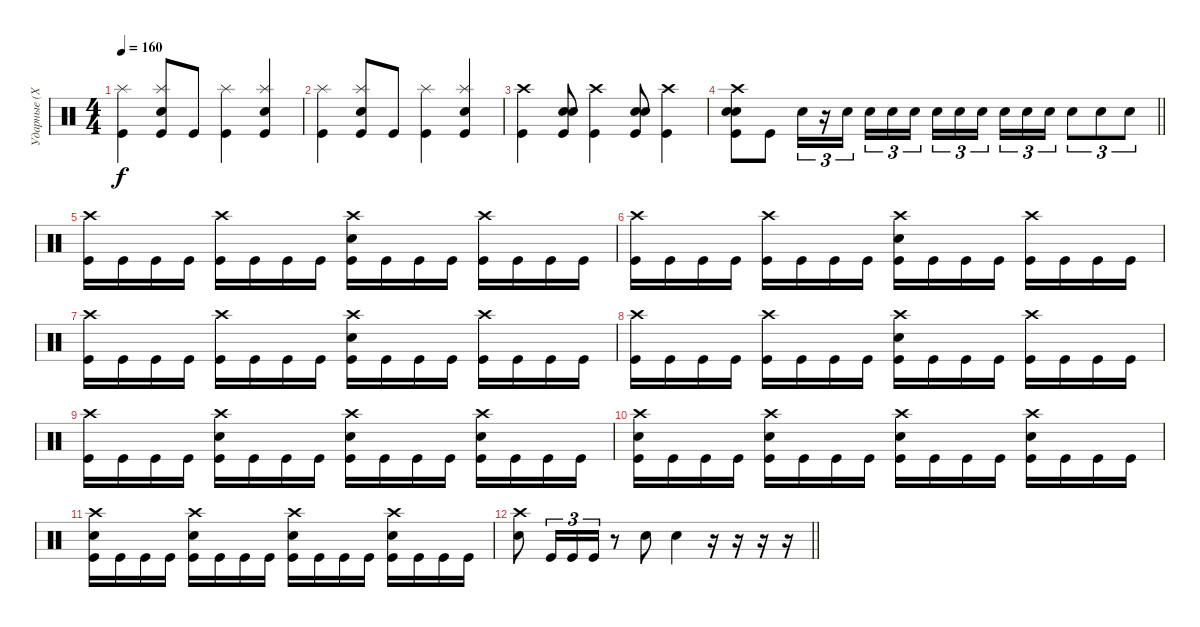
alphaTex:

\track ("Ударные (Хеллхаммер)" "Ударные (Х") {instrument percussion}
\staff {score}
\articulation defaults
\ts (4 4)
\tempo 160
\clef neutral
\ks c
("Kick (hit)" "Splash (hit)").4{dy f} ("Kick (hit)" "Splash (hit)" "Electric Snare (hit)").8 "Kick (hit)".8 ("Kick (hit)" "Splash (hit)").4 ("Kick (hit)" "Splash (hit)" "Electric Snare (hit)").4 |
("Kick (hit)" "Splash (hit)").4 ("Kick (hit)" "Splash (hit)" "Electric Snare (hit)").8 "Kick (hit)".8 ("Kick (hit)" "Splash (hit)").4 ("Kick (hit)" "Splash (hit)" "Electric Snare (hit)").4 |
("Kick (hit)" "Crash high (hit)").4 ("Kick (hit)" "Electric Snare (hit)" "Electric Snare (hit)").8 ("Kick (hit)" "Crash high (hit)").4 ("Kick (hit)" "Electric Snare (hit)" "Electric Snare (hit)").8 ("Kick (hit)" "Crash high (hit)").4 |
\barLineRight lightlight
("Kick (hit)" "Crash high (hit)" "Electric Snare (hit)" "Electric Snare (hit)").8 "Kick (hit)".8 "Electric Snare (hit)".16{tu (3 2)} r.16{tu (3 2)} "Electric Snare (hit)".16{tu (3 2) beam splitsecondary} "Electric Snare (hit)".16{tu (3 2)} "Electric Snare (hit)".16{tu (3 2)} "Electric Snare (hit)".16{tu (3 2)} "Electric Snare (hit)".16{tu (3 2)} "Electric Snare (hit)".16{tu (3 2)} "Electric Snare (hit)".16{tu (3 2) beam splitsecondary} "Electric Snare (hit)".16{tu (3 2)} "Electric Snare (hit)".16{tu (3 2)} "Electric Snare (hit)".16{tu (3 2)} "Electric Snare (hit)".8{tu (3 2)} "Electric Snare (hit)".8{tu (3 2)} "Electric Snare (hit)".8{tu (3 2)} |
("Kick (hit)" "Crash high (hit)").16 "Kick (hit)".16 "Kick (hit)".16 "Kick (hit)".16 ("Kick (hit)" "Crash high (hit)").16 "Kick (hit)".16 "Kick (hit)".16 "Kick (hit)".16 ("Kick (hit)" "Crash high (hit)" "Electric Snare (hit)").16 "Kick (hit)".16 "Kick (hit)".16 "Kick (hit)".16 ("Kick (hit)" "Crash high (hit)").16 "Kick (hit)".16 "Kick (hit)".16 "Kick (hit)".16 |
("Kick (hit)" "Crash high (hit)").16 "Kick (hit)".16 "Kick (hit)".16 "Kick (hit)".16 ("Kick (hit)" "Crash high (hit)").16 "Kick (hit)".16 "Kick (hit)".16 "Kick (hit)".16 ("Kick (hit)" "Crash high (hit)" "Electric Snare (hit)").16 "Kick (hit)".16 "Kick (hit)".16 "Kick (hit)".16 ("Kick (hit)" "Crash high (hit)").16 "Kick (hit)".16 "Kick (hit)".16 "Kick (hit)".16 |
("Kick (hit)" "Crash high (hit)").16 "Kick (hit)".16 "Kick (hit)".16 "Kick (hit)".16 ("Kick (hit)" "Crash high (hit)").16 "Kick (hit)".16 "Kick (hit)".16 "Kick (hit)".16 ("Kick (hit)" "Crash high (hit)" "Electric Snare (hit)").16 "Kick (hit)".16 "Kick (hit)".16 "Kick (hit)".16 ("Kick (hit)" "Crash high (hit)").16 "Kick (hit)".16 "Kick (hit)".16 "Kick (hit)".16 |
("Kick (hit)" "Crash high (hit)").16 "Kick (hit)".16 "Kick (hit)".16 "Kick (hit)".16 ("Kick (hit)" "Crash high (hit)").16 "Kick (hit)".16 "Kick (hit)".16 "Kick (hit)".16 ("Kick (hit)" "Crash high (hit)" "Electric Snare (hit)").16 "Kick (hit)".16 "Kick (hit)".16 "Kick (hit)".16 ("Kick (hit)" "Crash high (hit)").16 "Kick (hit)".16 "Kick (hit)".16 "Kick (hit)".16 |
("Kick (hit)" "Crash high (hit)").16 "Kick (hit)".16 "Kick (hit)".16 "Kick (hit)".16 ("Kick (hit)" "Crash high (hit)" "Electric Snare (hit)").16 "Kick (hit)".16 "Kick (hit)".16 "Kick (hit)".16 ("Kick (hit)" "Crash high (hit)" "Electric Snare (hit)").16 "Kick (hit)".16 "Kick (hit)".16 "Kick (hit)".16 ("Kick (hit)" "Crash high (hit)" "Electric Snare (hit)").16 "Kick (hit)".16 "Kick (hit)".16 "Kick (hit)".16 |
("Kick (hit)" "Crash high (hit)" "Electric Snare (hit)").16 "Kick (hit)".16 "Kick (hit)".16 "Kick (hit)".16 ("Kick (hit)" "Crash high (hit)" "Electric Snare (hit)").16 "Kick (hit)".16 "Kick (hit)".16 "Kick (hit)".16 ("Kick (hit)" "Crash high (hit)" "Electric Snare (hit)").16 "Kick (hit)".16 "Kick (hit)".16 "Kick (hit)".16 ("Kick (hit)" "Crash high (hit)" "Electric Snare (hit)").16 "Kick (hit)".16 "Kick (hit)".16 "Kick (hit)".16 |
("Kick (hit)" "Crash high (hit)" "Electric Snare (hit)").16 "Kick (hit)".16 "Kick (hit)".16 "Kick (hit)".16 ("Kick (hit)" "Crash high (hit)" "Electric Snare (hit)").16 "Kick (hit)".16 "Kick (hit)".16 "Kick (hit)".16 ("Kick (hit)" "Crash high (hit)" "Electric Snare (hit)").16 "Kick (hit)".16 "Kick (hit)".16 "Kick (hit)".16 ("Kick (hit)" "Crash high (hit)" "Electric Snare (hit)").16 "Kick (hit)".16 "Kick (hit)".16 "Kick (hit)".16 |
\barLineRight lightlight
("Electric Snare (hit)" "Crash high (hit)").8 "Kick (hit)".16{tu (3 2)} "Kick (hit)".16{tu (3 2)} "Kick (hit)".16{tu (3 2)} r.8 "Electric Snare (hit)".8 "Electric Snare (hit)".4 r.16 r.16 r.16 r.16
